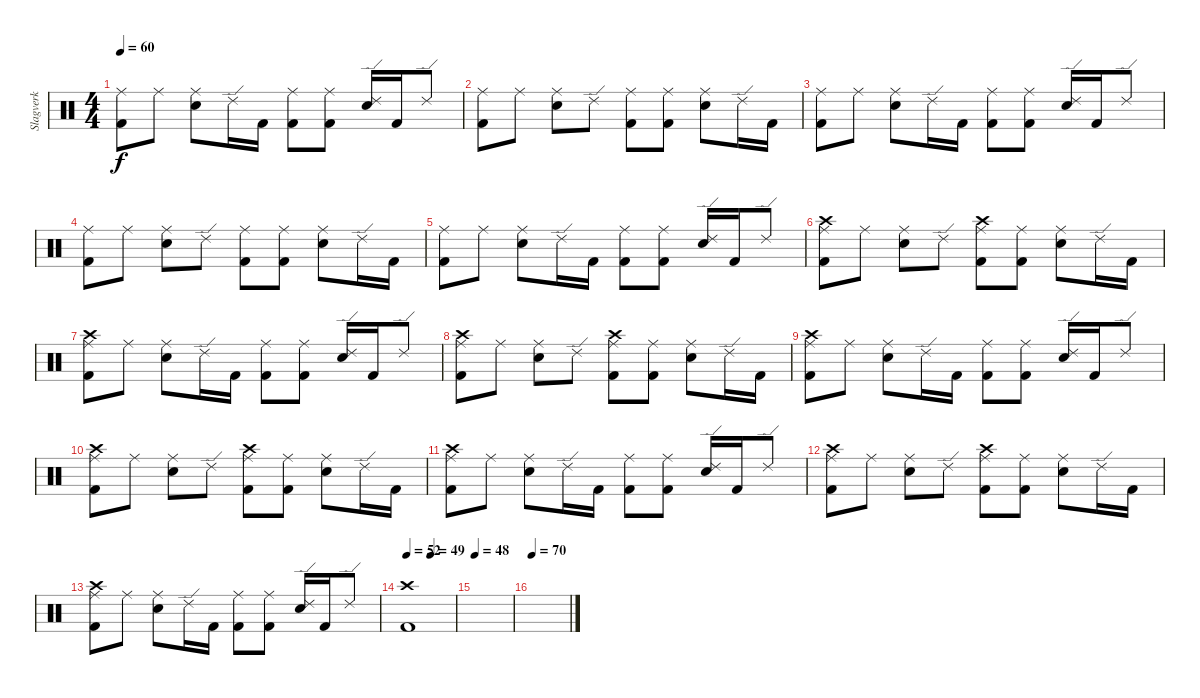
\track ("Slagverk" "Slagverk") {instrument percussion}
\staff {score}
\articulation defaults
\ts (4 4)
\tempo 60
\clef neutral
\ks c
("Ride (middle)" "Kick (hit) 2").8{dy f} "Ride (middle)".8 ("Ride (middle)" "Snare (hit) 2").8 "Ride (edge) 2".16 "Kick (hit) 2".16 ("Ride (middle)" "Kick (hit) 2").8 ("Ride (middle)" "Kick (hit) 2").8 ("Ride (edge) 2" "Snare (hit) 2").16 "Kick (hit) 2".16 "Ride (edge) 2".8 |
("Ride (middle)" "Kick (hit) 2").8 "Ride (middle)".8 ("Ride (middle)" "Snare (hit) 2").8 "Ride (edge) 2".8 ("Ride (middle)" "Kick (hit) 2").8 ("Ride (middle)" "Kick (hit) 2").8 ("Ride (middle)" "Snare (hit) 2").8 "Ride (edge) 2".16 "Kick (hit) 2".16 |
("Ride (middle)" "Kick (hit) 2").8 "Ride (middle)".8 ("Ride (middle)" "Snare (hit) 2").8 "Ride (edge) 2".16 "Kick (hit) 2".16 ("Ride (middle)" "Kick (hit) 2").8 ("Ride (middle)" "Kick (hit) 2").8 ("Ride (edge) 2" "Snare (hit) 2").16 "Kick (hit) 2".16 "Ride (edge) 2".8 |
("Ride (middle)" "Kick (hit) 2").8 "Ride (middle)".8 ("Ride (middle)" "Snare (hit) 2").8 "Ride (edge) 2".8 ("Ride (middle)" "Kick (hit) 2").8 ("Ride (middle)" "Kick (hit) 2").8 ("Ride (middle)" "Snare (hit) 2").8 "Ride (edge) 2".16 "Kick (hit) 2".16 |
("Ride (middle)" "Kick (hit) 2").8 "Ride (middle)".8 ("Ride (middle)" "Snare (hit) 2").8 "Ride (edge) 2".16 "Kick (hit) 2".16 ("Ride (middle)" "Kick (hit) 2").8 ("Ride (middle)" "Kick (hit) 2").8 ("Ride (edge) 2" "Snare (hit) 2").16 "Kick (hit) 2".16 "Ride (edge) 2".8 |
("Crash high (hit)" "Ride (middle)" "Kick (hit) 2").8 "Ride (middle)".8 ("Ride (middle)" "Snare (hit) 2").8 "Ride (edge) 2".8 ("Crash high (hit)" "Ride (middle)" "Kick (hit) 2").8 ("Ride (middle)" "Kick (hit) 2").8 ("Ride (middle)" "Snare (hit) 2").8 "Ride (edge) 2".16 "Kick (hit) 2".16 |
("Crash high (hit)" "Ride (middle)" "Kick (hit) 2").8 "Ride (middle)".8 ("Ride (middle)" "Snare (hit) 2").8 "Ride (edge) 2".16 "Kick (hit) 2".16 ("Ride (middle)" "Kick (hit) 2").8 ("Ride (middle)" "Kick (hit) 2").8 ("Ride (edge) 2" "Snare (hit) 2").16 "Kick (hit) 2".16 "Ride (edge) 2".8 |
("Crash high (hit)" "Ride (middle)" "Kick (hit) 2").8 "Ride (middle)".8 ("Ride (middle)" "Snare (hit) 2").8 "Ride (edge) 2".8 ("Crash high (hit)" "Ride (middle)" "Kick (hit) 2").8 ("Ride (middle)" "Kick (hit) 2").8 ("Ride (middle)" "Snare (hit) 2").8 "Ride (edge) 2".16 "Kick (hit) 2".16 |
("Crash high (hit)" "Ride (middle)" "Kick (hit) 2").8 "Ride (middle)".8 ("Ride (middle)" "Snare (hit) 2").8 "Ride (edge) 2".16 "Kick (hit) 2".16 ("Ride (middle)" "Kick (hit) 2").8 ("Ride (middle)" "Kick (hit) 2").8 ("Ride (edge) 2" "Snare (hit) 2").16 "Kick (hit) 2".16 "Ride (edge) 2".8 |
("Crash high (hit)" "Ride (middle)" "Kick (hit) 2").8 "Ride (middle)".8 ("Ride (middle)" "Snare (hit) 2").8 "Ride (edge) 2".8 ("Crash high (hit)" "Ride (middle)" "Kick (hit) 2").8 ("Ride (middle)" "Kick (hit) 2").8 ("Ride (middle)" "Snare (hit) 2").8 "Ride (edge) 2".16 "Kick (hit) 2".16 |
("Crash high (hit)" "Ride (middle)" "Kick (hit) 2").8 "Ride (middle)".8 ("Ride (middle)" "Snare (hit) 2").8 "Ride (edge) 2".16 "Kick (hit) 2".16 ("Ride (middle)" "Kick (hit) 2").8 ("Ride (middle)" "Kick (hit) 2").8 ("Ride (edge) 2" "Snare (hit) 2").16 "Kick (hit) 2".16 "Ride (edge) 2".8 |
("Crash high (hit)" "Ride (middle)" "Kick (hit) 2").8 "Ride (middle)".8 ("Ride (middle)" "Snare (hit) 2").8 "Ride (edge) 2".8 ("Crash high (hit)" "Ride (middle)" "Kick (hit) 2").8 ("Ride (middle)" "Kick (hit) 2").8 ("Ride (middle)" "Snare (hit) 2").8 "Ride (edge) 2".16 "Kick (hit) 2".16 |
("Crash high (hit)" "Ride (middle)" "Kick (hit) 2").8 "Ride (middle)".8 ("Ride (middle)" "Snare (hit) 2").8 "Ride (edge) 2".16 "Kick (hit) 2".16 ("Ride (middle)" "Kick (hit) 2").8 ("Ride (middle)" "Kick (hit) 2").8 ("Ride (edge) 2" "Snare (hit) 2").16 "Kick (hit) 2".16 "Ride (edge) 2".8 |
\tempo 52
\tempo (49 0.5)
("Crash high (hit)" "Kick (hit) 2").1 |
\tempo 48
|
\tempo 70
